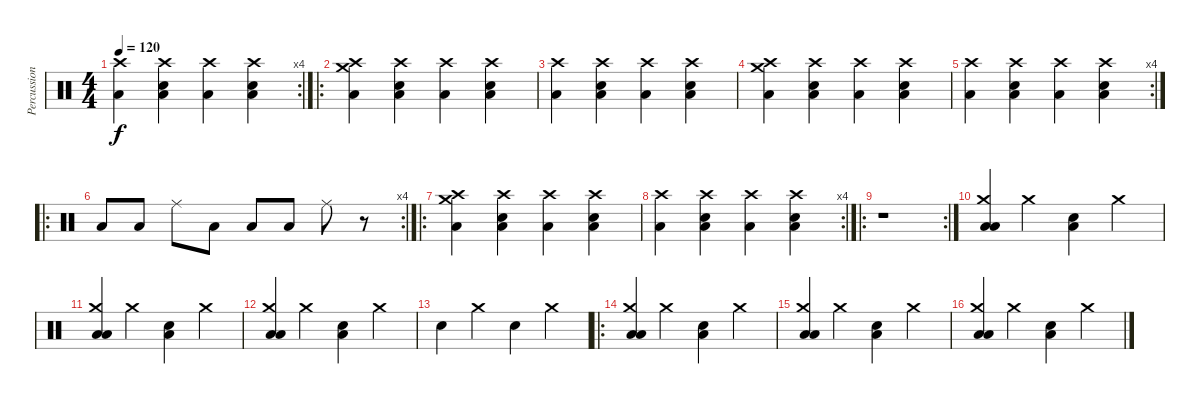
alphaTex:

\track ("Percussions" "Percussion") {instrument percussion}
\staff {score}
\articulation defaults
\rc 4
\ts (4 4)
\tempo 120
\clef neutral
\ks c
("Low Floor Tom (hit)" "Crash high (hit)").4{dy f} ("Low Floor Tom (hit)" "Electric Snare (hit)" "Crash high (hit)").4 ("Low Floor Tom (hit)" "Crash high (hit)").4 ("Low Floor Tom (hit)" "Electric Snare (hit)" "Crash high (hit)").4 |
\ro
("Low Floor Tom (hit)" "Crash high (hit)" "Crash medium (hit)").4 ("Low Floor Tom (hit)" "Electric Snare (hit)" "Crash high (hit)").4 ("Low Floor Tom (hit)" "Crash high (hit)").4 ("Low Floor Tom (hit)" "Electric Snare (hit)" "Crash high (hit)").4 |
("Low Floor Tom (hit)" "Crash high (hit)").4 ("Low Floor Tom (hit)" "Electric Snare (hit)" "Crash high (hit)").4 ("Low Floor Tom (hit)" "Crash high (hit)").4 ("Low Floor Tom (hit)" "Electric Snare (hit)" "Crash high (hit)").4 |
("Low Floor Tom (hit)" "Crash high (hit)" "Crash medium (hit)").4 ("Low Floor Tom (hit)" "Electric Snare (hit)" "Crash high (hit)").4 ("Low Floor Tom (hit)" "Crash high (hit)").4 ("Low Floor Tom (hit)" "Electric Snare (hit)" "Crash high (hit)").4 |
\rc 4
("Low Floor Tom (hit)" "Crash high (hit)").4 ("Low Floor Tom (hit)" "Electric Snare (hit)" "Crash high (hit)").4 ("Low Floor Tom (hit)" "Crash high (hit)").4 ("Low Floor Tom (hit)" "Electric Snare (hit)" "Crash high (hit)").4 |
\ro
\rc 4 "Low Floor Tom (hit)".8 "Low Floor Tom (hit)".8 "Ride (middle)".8 "Low Tom (hit)".8 "Low Floor Tom (hit)".8 "Low Floor Tom (hit)".8 "Ride (middle)".8
r.8 |
\ro
("Low Floor Tom (hit)" "Crash high (hit)" "Crash medium (hit)").4 ("Low Floor Tom (hit)" "Electric Snare (hit)" "Crash high (hit)").4 ("Low Floor Tom (hit)" "Crash high (hit)").4 ("Low Floor Tom (hit)" "Electric Snare (hit)" "Crash high (hit)").4 |
\rc 4
("Low Floor Tom (hit)" "Crash high (hit)").4 ("Low Floor Tom (hit)" "Electric Snare (hit)" "Crash high (hit)").4 ("Low Floor Tom (hit)" "Crash high (hit)").4 ("Low Floor Tom (hit)" "Electric Snare (hit)" "Crash high (hit)").4 |
\ro
\rc 2
r.1 |
("Low Floor Tom (hit)" "Low Tom (hit)" "Crash medium (hit)").4 "Crash medium (hit)".4 ("Low Floor Tom (hit)" "Electric Snare (hit)").4 "Crash medium (hit)".4 |
("Low Floor Tom (hit)" "Low Tom (hit)" "Crash medium (hit)").4 "Crash medium (hit)".4 ("Low Floor Tom (hit)" "Electric Snare (hit)").4 "Crash medium (hit)".4 |
("Low Floor Tom (hit)" "Low Tom (hit)" "Crash medium (hit)").4 "Crash medium (hit)".4 ("Low Floor Tom (hit)" "Electric Snare (hit)").4 "Crash medium (hit)".4 |
"Electric Snare (hit)".4 "Crash medium (hit)".4 "Electric Snare (hit)".4 "Crash medium (hit)".4 |
\ro
("Low Floor Tom (hit)" "Low Tom (hit)" "Crash medium (hit)").4 "Crash medium (hit)".4 ("Low Floor Tom (hit)" "Electric Snare (hit)").4 "Crash medium (hit)".4 |
("Low Floor Tom (hit)" "Low Tom (hit)" "Crash medium (hit)").4 "Crash medium (hit)".4 ("Low Floor Tom (hit)" "Electric Snare (hit)").4 "Crash medium (hit)".4 |
("Low Floor Tom (hit)" "Low Tom (hit)" "Crash medium (hit)").4 "Crash medium (hit)".4 ("Low Floor Tom (hit)" "Electric Snare (hit)").4 "Crash medium (hit)".4
